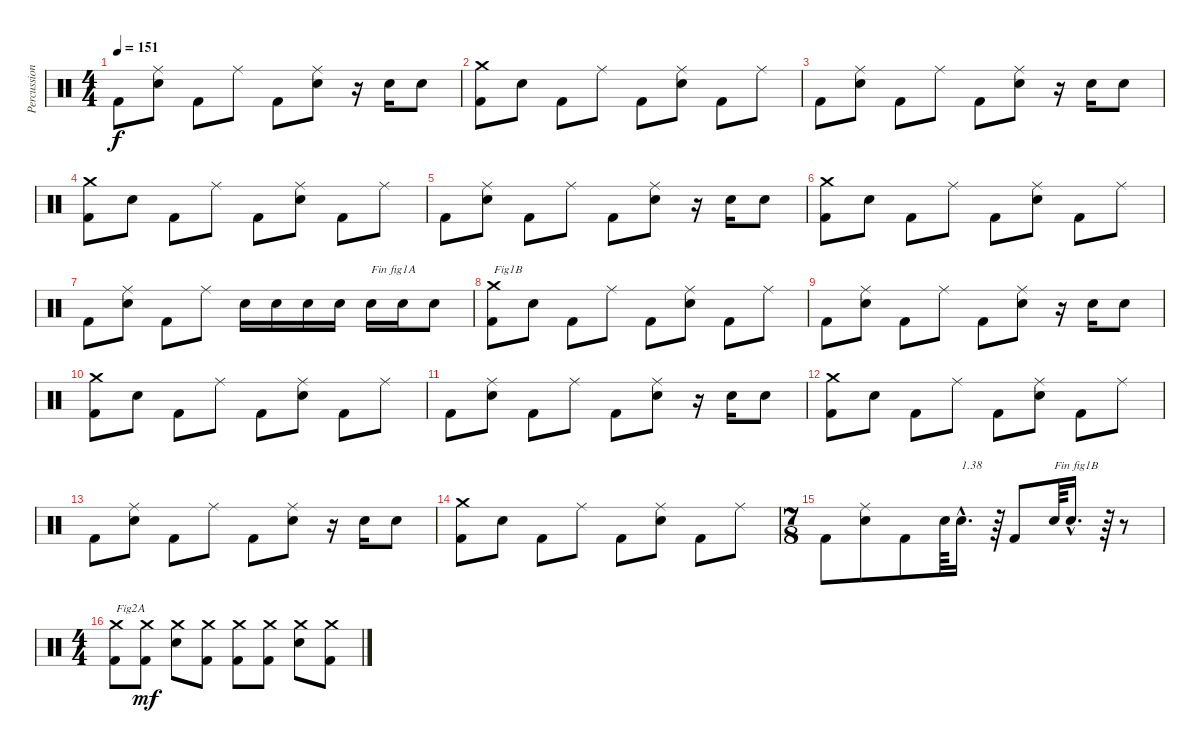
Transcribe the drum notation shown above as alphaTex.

\track ("Percussions" "Percussion") {instrument percussion}
\staff {score}
\articulation defaults
\ts (4 4)
\tempo 151
\clef neutral
\ks c "Kick (hit) 2".8{dy f}
("Electric Snare (hit)" "Ride (middle)").8 "Kick (hit) 2".8 "Ride (middle)".8 "Kick (hit) 2".8 ("Electric Snare (hit)" "Ride (middle)").8 r.16 "Electric Snare (hit)".16 "Electric Snare (hit)".8 |
("Kick (hit) 2" "Crash medium (hit)").8 "Electric Snare (hit)".8 "Kick (hit) 2".8 "Ride (middle)".8 "Kick (hit) 2".8 ("Electric Snare (hit)" "Ride (middle)").8 "Kick (hit) 2".8 "Ride (middle)".8 |
"Kick (hit) 2".8 ("Electric Snare (hit)" "Ride (middle)").8 "Kick (hit) 2".8 "Ride (middle)".8 "Kick (hit) 2".8 ("Electric Snare (hit)" "Ride (middle)").8 r.16 "Electric Snare (hit)".16 "Electric Snare (hit)".8 |
("Kick (hit) 2" "Crash medium (hit)").8 "Electric Snare (hit)".8 "Kick (hit) 2".8 "Ride (middle)".8 "Kick (hit) 2".8 ("Electric Snare (hit)" "Ride (middle)").8 "Kick (hit) 2".8 "Ride (middle)".8 |
"Kick (hit) 2".8 ("Electric Snare (hit)" "Ride (middle)").8 "Kick (hit) 2".8 "Ride (middle)".8 "Kick (hit) 2".8 ("Electric Snare (hit)" "Ride (middle)").8 r.16 "Electric Snare (hit)".16 "Electric Snare (hit)".8 |
("Kick (hit) 2" "Crash medium (hit)").8 "Electric Snare (hit)".8 "Kick (hit) 2".8 "Ride (middle)".8 "Kick (hit) 2".8 ("Electric Snare (hit)" "Ride (middle)").8 "Kick (hit) 2".8 "Ride (middle)".8 |
"Kick (hit) 2".8 ("Electric Snare (hit)" "Ride (middle)").8 "Kick (hit) 2".8 "Ride (middle)".8 "Electric Snare (hit)".16 "Electric Snare (hit)".16 "Electric Snare (hit)".16 "Electric Snare (hit)".16 "Electric Snare (hit)".16{txt "Fin fig1A"} "Electric Snare (hit)".16 "Electric Snare (hit)".8 |
("Kick (hit) 2" "Crash medium (hit)").8{txt "Fig1B"} "Electric Snare (hit)".8 "Kick (hit) 2".8 "Ride (middle)".8 "Kick (hit) 2".8 ("Electric Snare (hit)" "Ride (middle)").8 "Kick (hit) 2".8 "Ride (middle)".8 |
"Kick (hit) 2".8 ("Electric Snare (hit)" "Ride (middle)").8 "Kick (hit) 2".8 "Ride (middle)".8 "Kick (hit) 2".8 ("Electric Snare (hit)" "Ride (middle)").8 r.16 "Electric Snare (hit)".16 "Electric Snare (hit)".8 |
("Kick (hit) 2" "Crash medium (hit)").8 "Electric Snare (hit)".8 "Kick (hit) 2".8 "Ride (middle)".8 "Kick (hit) 2".8 ("Electric Snare (hit)" "Ride (middle)").8 "Kick (hit) 2".8 "Ride (middle)".8 |
"Kick (hit) 2".8 ("Electric Snare (hit)" "Ride (middle)").8 "Kick (hit) 2".8 "Ride (middle)".8 "Kick (hit) 2".8 ("Electric Snare (hit)" "Ride (middle)").8 r.16 "Electric Snare (hit)".16 "Electric Snare (hit)".8 |
("Kick (hit) 2" "Crash medium (hit)").8 "Electric Snare (hit)".8 "Kick (hit) 2".8 "Ride (middle)".8 "Kick (hit) 2".8 ("Electric Snare (hit)" "Ride (middle)").8 "Kick (hit) 2".8 "Ride (middle)".8 |
"Kick (hit) 2".8 ("Electric Snare (hit)" "Ride (middle)").8 "Kick (hit) 2".8 "Ride (middle)".8 "Kick (hit) 2".8 ("Electric Snare (hit)" "Ride (middle)").8 r.16 "Electric Snare (hit)".16 "Electric Snare (hit)".8 |
("Kick (hit) 2" "Crash medium (hit)").8 "Electric Snare (hit)".8 "Kick (hit) 2".8 "Ride (middle)".8 "Kick (hit) 2".8 ("Electric Snare (hit)" "Ride (middle)").8 "Kick (hit) 2".8 "Ride (middle)".8 |
\ts (7 8)
"Kick (hit) 2".8 ("Electric Snare (hit)" "Ride (middle)").8 "Kick (hit) 2".8 "Electric Snare (hit)".64 "Electric Snare (hit)"{hac}.16{d txt "1.38"} r.64 "Kick (hit) 2".8 "Electric Snare (hit)".64{txt "Fin fig1B"} "Electric Snare (hit)"{hac}.16{d} r.64 r.8 |
\ts (4 4)
("Kick (hit) 2" "Crash medium (hit)").8{txt "Fig2A"} ("Kick (hit) 2" "Crash medium (hit)").8{dy mf} ("Electric Snare (hit)" "Crash medium (hit)").8 ("Kick (hit) 2" "Crash medium (hit)").8 ("Kick (hit) 2" "Crash medium (hit)").8 ("Kick (hit) 2" "Crash medium (hit)").8 ("Electric Snare (hit)" "Crash medium (hit)").8 ("Kick (hit) 2" "Crash medium (hit)").8
